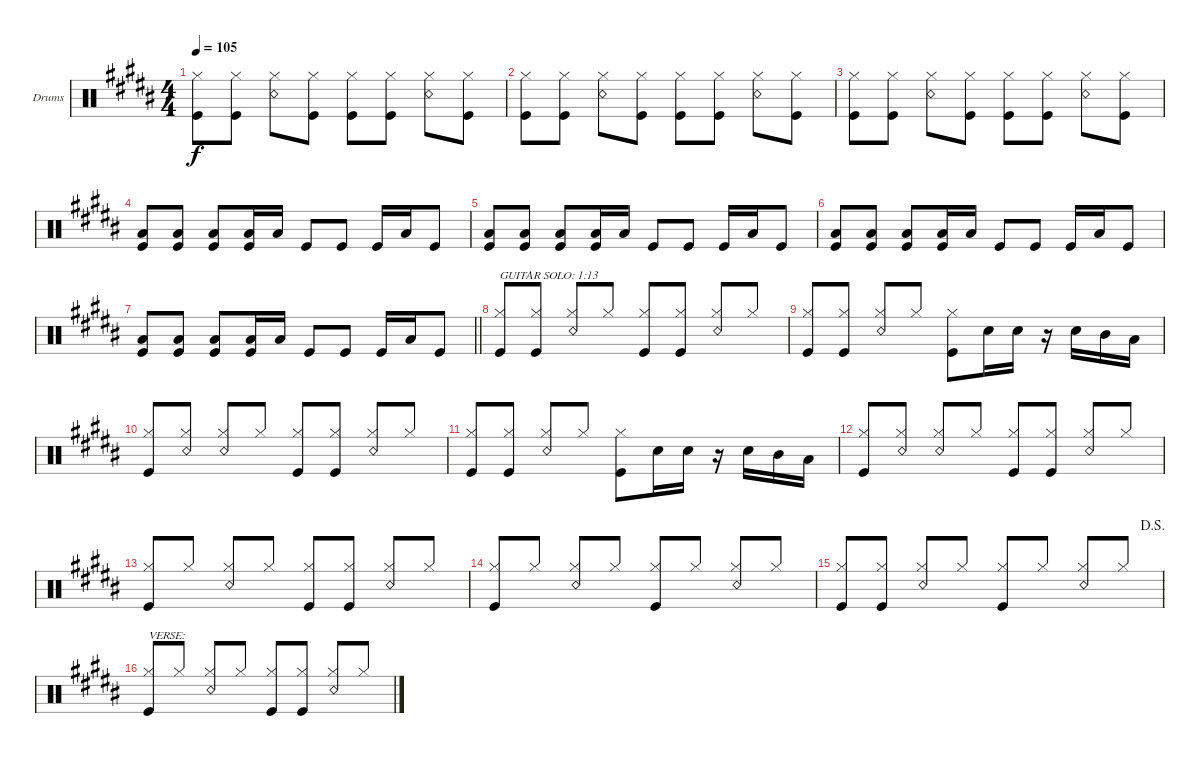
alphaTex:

\defaultSystemsLayout 4
\bracketExtendMode groupsimilarinstruments
\firstSystemTrackNameOrientation horizontal
\otherSystemsTrackNameOrientation horizontal
\track ("Ringo Starr" "Drums") {instrument percussion}
\staff {score}
\articulation defaults
\ts (4 4)
\tempo 105
\clef neutral
\scale
0.333333
\ks b
("Hi-Hat (closed)" "Kick (hit)").8{dy f} ("Hi-Hat (closed)" "Kick (hit)").8 ("Hi-Hat (closed)" "Snare (rim shot)").8 ("Hi-Hat (closed)" "Kick (hit)").8 ("Hi-Hat (closed)" "Kick (hit)").8 ("Hi-Hat (closed)" "Kick (hit)").8 ("Hi-Hat (closed)" "Snare (rim shot)").8 ("Hi-Hat (closed)" "Kick (hit)").8 |
\scale
0.333333 ("Hi-Hat (closed)" "Kick (hit)").8 ("Hi-Hat (closed)" "Kick (hit)").8 ("Hi-Hat (closed)" "Snare (rim shot)").8 ("Hi-Hat (closed)" "Kick (hit)").8 ("Hi-Hat (closed)" "Kick (hit)").8 ("Hi-Hat (closed)" "Kick (hit)").8 ("Hi-Hat (closed)" "Snare (rim shot)").8 ("Hi-Hat (closed)" "Kick (hit)").8 |
\scale
0.333333 ("Hi-Hat (closed)" "Kick (hit)").8 ("Hi-Hat (closed)" "Kick (hit)").8 ("Hi-Hat (closed)" "Snare (rim shot)").8 ("Hi-Hat (closed)" "Kick (hit)").8 ("Hi-Hat (closed)" "Kick (hit)").8 ("Hi-Hat (closed)" "Kick (hit)").8 ("Hi-Hat (closed)" "Snare (rim shot)").8 ("Hi-Hat (closed)" "Kick (hit)").8 |
\scale
0.333333 ("Kick (hit)" "Low Tom (hit)").8 ("Kick (hit)" "Low Tom (hit)").8 ("Kick (hit)" "Low Tom (hit)").8 ("Kick (hit)" "Low Tom (hit)").16 "Low Tom (hit)".16 "Kick (hit)".8 "Kick (hit)".8 "Kick (hit)".16 "Low Tom (hit)".16 "Kick (hit)".8 |
\scale
0.333333 ("Kick (hit)" "Low Tom (hit)").8 ("Kick (hit)" "Low Tom (hit)").8 ("Kick (hit)" "Low Tom (hit)").8 ("Kick (hit)" "Low Tom (hit)").16 "Low Tom (hit)".16 "Kick (hit)".8 "Kick (hit)".8 "Kick (hit)".16 "Low Tom (hit)".16 "Kick (hit)".8 |
\scale
0.333333 ("Kick (hit)" "Low Tom (hit)").8 ("Kick (hit)" "Low Tom (hit)").8 ("Kick (hit)" "Low Tom (hit)").8 ("Kick (hit)" "Low Tom (hit)").16 "Low Tom (hit)".16 "Kick (hit)".8 "Kick (hit)".8 "Kick (hit)".16 "Low Tom (hit)".16 "Kick (hit)".8 |
\scale
0.333333
\barLineRight lightlight
("Kick (hit)" "Low Tom (hit)").8 ("Kick (hit)" "Low Tom (hit)").8 ("Kick (hit)" "Low Tom (hit)").8 ("Kick (hit)" "Low Tom (hit)").16 "Low Tom (hit)".16 "Kick (hit)".8 "Kick (hit)".8 "Kick (hit)".16 "Low Tom (hit)".16 "Kick (hit)".8 |
\scale
0.333333 ("Hi-Hat (closed)" "Kick (hit)").8{txt "GUITAR SOLO: 1:13"} ("Hi-Hat (closed)" "Kick (hit)").8 ("Hi-Hat (closed)" "Snare (rim shot)").8{beam invert} "Hi-Hat (closed)".8 ("Hi-Hat (closed)" "Kick (hit)").8 ("Hi-Hat (closed)" "Kick (hit)").8 ("Hi-Hat (closed)" "Snare (rim shot)").8{beam invert} "Hi-Hat (closed)".8 |
\scale
0.333333 ("Hi-Hat (closed)" "Kick (hit)").8 ("Hi-Hat (closed)" "Kick (hit)").8 ("Hi-Hat (closed)" "Snare (rim shot)").8{beam invert} "Hi-Hat (closed)".8 ("Hi-Hat (closed)" "Kick (hit)").8 "Snare (hit) 2".16 "Snare (hit) 2".16 r.16 "Snare (hit) 2".16 "Mid Tom (hit)".16 "Low Tom (hit)".16 |
\scale
0.333333 ("Hi-Hat (closed)" "Kick (hit)").8{beam invert} ("Hi-Hat (closed)" "Snare (rim shot)").8 ("Hi-Hat (closed)" "Snare (rim shot)").8{beam invert} "Hi-Hat (closed)".8 ("Hi-Hat (closed)" "Kick (hit)").8 ("Hi-Hat (closed)" "Kick (hit)").8 ("Hi-Hat (closed)" "Snare (rim shot)").8{beam invert} "Hi-Hat (closed)".8 |
\scale
0.333333 ("Hi-Hat (closed)" "Kick (hit)").8 ("Hi-Hat (closed)" "Kick (hit)").8 ("Hi-Hat (closed)" "Snare (rim shot)").8{beam invert} "Hi-Hat (closed)".8 ("Hi-Hat (closed)" "Kick (hit)").8 "Snare (hit) 2".16 "Snare (hit) 2".16 r.16 "Snare (hit) 2".16 "Mid Tom (hit)".16 "Low Tom (hit)".16 |
\scale
0.333333 ("Hi-Hat (closed)" "Kick (hit)").8{beam invert} ("Hi-Hat (closed)" "Snare (rim shot)").8 ("Hi-Hat (closed)" "Snare (rim shot)").8{beam invert} "Hi-Hat (closed)".8 ("Hi-Hat (closed)" "Kick (hit)").8 ("Hi-Hat (closed)" "Kick (hit)").8 ("Hi-Hat (closed)" "Snare (rim shot)").8{beam invert} "Hi-Hat (closed)".8 |
\scale
0.333333 ("Hi-Hat (closed)" "Kick (hit)").8{beam invert} "Hi-Hat (closed)".8 ("Hi-Hat (closed)" "Snare (rim shot)").8{beam invert} "Hi-Hat (closed)".8 ("Hi-Hat (closed)" "Kick (hit)").8 ("Hi-Hat (closed)" "Kick (hit)").8 ("Hi-Hat (closed)" "Snare (rim shot)").8{beam invert} "Hi-Hat (closed)".8 |
\scale
0.333333 ("Hi-Hat (closed)" "Kick (hit)").8{beam invert} "Hi-Hat (closed)".8 ("Hi-Hat (closed)" "Snare (rim shot)").8{beam invert} "Hi-Hat (closed)".8 ("Hi-Hat (closed)" "Kick (hit)").8{beam invert} "Hi-Hat (closed)".8 ("Hi-Hat (closed)" "Snare (rim shot)").8{beam invert} "Hi-Hat (closed)".8 |
\jump dalsegno
\scale
0.333333 ("Hi-Hat (closed)" "Kick (hit)").8 ("Hi-Hat (closed)" "Kick (hit)").8 ("Hi-Hat (closed)" "Snare (rim shot)").8{beam invert} "Hi-Hat (closed)".8 ("Hi-Hat (closed)" "Kick (hit)").8{beam invert} "Hi-Hat (closed)".8 ("Hi-Hat (closed)" "Snare (rim shot)").8{beam invert} "Hi-Hat (closed)".8 |
\scale
0.333333 ("Hi-Hat (closed)" "Kick (hit)").8{txt "VERSE:" beam invert} "Hi-Hat (closed)".8 ("Hi-Hat (closed)" "Snare (rim shot)").8{beam invert} "Hi-Hat (closed)".8 ("Hi-Hat (closed)" "Kick (hit)").8 ("Hi-Hat (closed)" "Kick (hit)").8 ("Hi-Hat (closed)" "Snare (rim shot)").8{beam invert} "Hi-Hat (closed)".8
